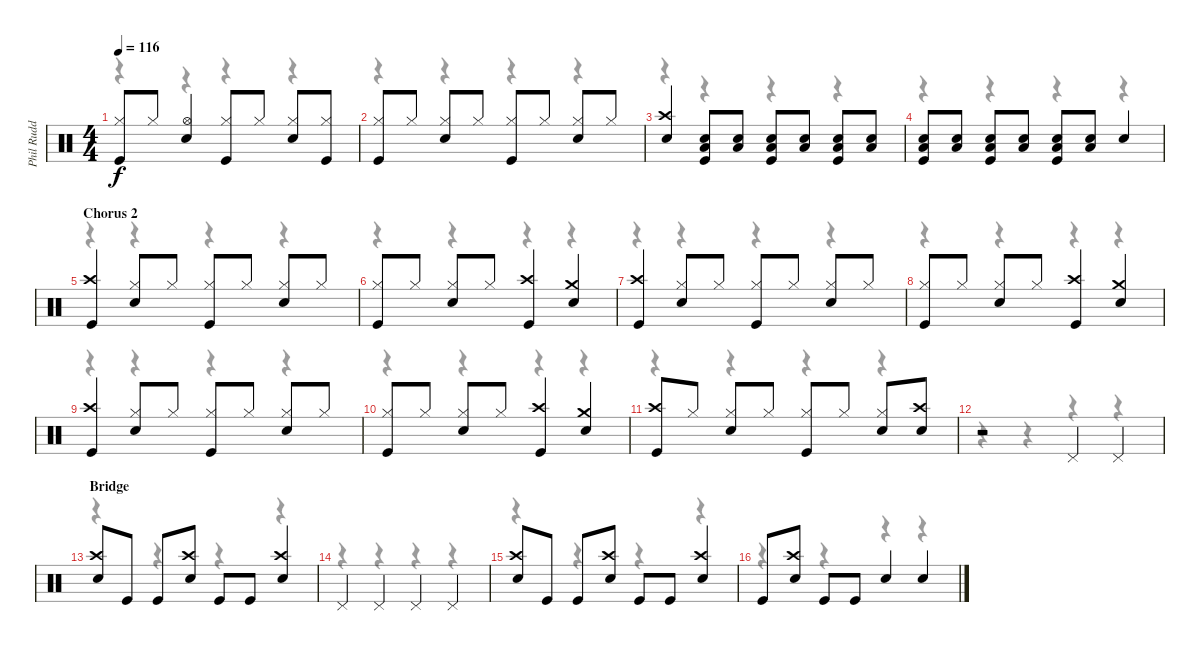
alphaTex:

\track ("Phil Rudd" "Phil Rudd") {instrument percussion}
\staff {score}
\articulation defaults
\voice
\ts (4 4)
\tempo 116
\clef neutral
\ks c
("Hi-Hat (closed)" "Kick (hit)").8{dy f} "Hi-Hat (closed)".8 ("Hi-Hat (open)" "Snare (hit) 2").4 ("Hi-Hat (closed)" "Kick (hit)").8 "Hi-Hat (closed)".8 ("Hi-Hat (closed)" "Snare (hit) 2").8 ("Hi-Hat (closed)" "Kick (hit)").8 |
("Hi-Hat (closed)" "Kick (hit)").8 "Hi-Hat (closed)".8 ("Hi-Hat (closed)" "Snare (hit) 2").8 "Hi-Hat (closed)".8 ("Hi-Hat (closed)" "Kick (hit)").8 "Hi-Hat (closed)".8 ("Hi-Hat (closed)" "Snare (hit) 2").8 "Hi-Hat (closed)".8 |
("Crash high (hit)" "Snare (hit) 2").4 ("Low Floor Tom (hit)" "Snare (hit) 2" "Kick (hit)").8 ("Low Floor Tom (hit)" "Snare (hit) 2").8 ("Low Floor Tom (hit)" "Snare (hit) 2" "Kick (hit)").8 ("Low Floor Tom (hit)" "Snare (hit) 2").8 ("Low Floor Tom (hit)" "Snare (hit) 2" "Kick (hit)").8 ("Low Floor Tom (hit)" "Snare (hit) 2").8 |
("Low Floor Tom (hit)" "Snare (hit) 2" "Kick (hit)").8 ("Low Floor Tom (hit)" "Snare (hit) 2").8 ("Low Floor Tom (hit)" "Snare (hit) 2" "Kick (hit)").8 ("Low Floor Tom (hit)" "Snare (hit) 2").8 ("Low Floor Tom (hit)" "Snare (hit) 2" "Kick (hit)").8 ("Low Floor Tom (hit)" "Snare (hit) 2").8 "Snare (hit) 2".4 |
\section ("" "Chorus 2")
("Crash high (hit)" "Kick (hit)").4 ("Hi-Hat (closed)" "Snare (hit) 2").8 "Hi-Hat (closed)".8 ("Hi-Hat (closed)" "Kick (hit)").8 "Hi-Hat (closed)".8 ("Hi-Hat (closed)" "Snare (hit) 2").8 "Hi-Hat (closed)".8 |
("Hi-Hat (closed)" "Kick (hit)").8 "Hi-Hat (closed)".8 ("Hi-Hat (closed)" "Snare (hit) 2").8 "Hi-Hat (closed)".8 ("Crash high (hit)" "Kick (hit)").4 ("Crash medium (hit)" "Snare (hit) 2").4 |
("Crash high (hit)" "Kick (hit)").4 ("Hi-Hat (closed)" "Snare (hit) 2").8 "Hi-Hat (closed)".8 ("Hi-Hat (closed)" "Kick (hit)").8 "Hi-Hat (closed)".8 ("Hi-Hat (closed)" "Snare (hit) 2").8 "Hi-Hat (closed)".8 |
("Hi-Hat (closed)" "Kick (hit)").8 "Hi-Hat (closed)".8 ("Hi-Hat (closed)" "Snare (hit) 2").8 "Hi-Hat (closed)".8 ("Crash high (hit)" "Kick (hit)").4 ("Crash medium (hit)" "Snare (hit) 2").4 |
("Crash high (hit)" "Kick (hit)").4 ("Hi-Hat (closed)" "Snare (hit) 2").8 "Hi-Hat (closed)".8 ("Hi-Hat (closed)" "Kick (hit)").8 "Hi-Hat (closed)".8 ("Hi-Hat (closed)" "Snare (hit) 2").8 "Hi-Hat (closed)".8 |
("Hi-Hat (closed)" "Kick (hit)").8 "Hi-Hat (closed)".8 ("Hi-Hat (closed)" "Snare (hit) 2").8 "Hi-Hat (closed)".8 ("Crash high (hit)" "Kick (hit)").4 ("Crash medium (hit)" "Snare (hit) 2").4 |
("Crash high (hit)" "Kick (hit)").8 "Hi-Hat (closed)".8 ("Hi-Hat (closed)" "Snare (hit) 2").8 "Hi-Hat (closed)".8 ("Hi-Hat (closed)" "Kick (hit)").8 "Hi-Hat (closed)".8 ("Hi-Hat (closed)" "Snare (hit) 2").8 ("Crash high (hit)" "Snare (hit) 2").8 |
r.2 "Pedal Hi-Hat (hit)".4 "Pedal Hi-Hat (hit)".4 |
\section ("" "Bridge")
("Crash high (hit)" "Snare (hit) 2").8 "Kick (hit)".8 "Kick (hit)".8 ("Crash high (hit)" "Snare (hit) 2").8 "Kick (hit)".8 "Kick (hit)".8 ("Crash high (hit)" "Snare (hit) 2").4 |
"Pedal Hi-Hat (hit)".4 "Pedal Hi-Hat (hit)".4 "Pedal Hi-Hat (hit)".4 "Pedal Hi-Hat (hit)".4 |
("Crash high (hit)" "Snare (hit) 2").8 "Kick (hit)".8 "Kick (hit)".8 ("Crash high (hit)" "Snare (hit) 2").8 "Kick (hit)".8 "Kick (hit)".8 ("Crash high (hit)" "Snare (hit) 2").4 |
"Kick (hit)".8 ("Crash high (hit)" "Snare (hit) 2").8 "Kick (hit)".8 "Kick (hit)".8 "Snare (hit) 2".4 "Snare (hit) 2".4
\voice
\clef neutral
\ottava regular
\simile none
\ks c
r.4{dy f} r.4 r.4 r.4 |
r.4 r.4 r.4 r.4 |
r.4 r.4 r.4 r.4 |
r.4 r.4 r.4 r.4 |
r.4 r.4 r.4 r.4 |
r.4 r.4 r.4 r.4 |
r.4 r.4 r.4 r.4 |
r.4 r.4 r.4 r.4 |
r.4 r.4 r.4 r.4 |
r.4 r.4 r.4 r.4 |
r.4 r.4 r.4 r.4 |
r.4 r.4 r.4 r.4 |
r.4 r.4 r.4 r.4 |
r.4 r.4 r.4 r.4 |
r.4 r.4 r.4 r.4 |
r.4 r.4 r.4 r.4
